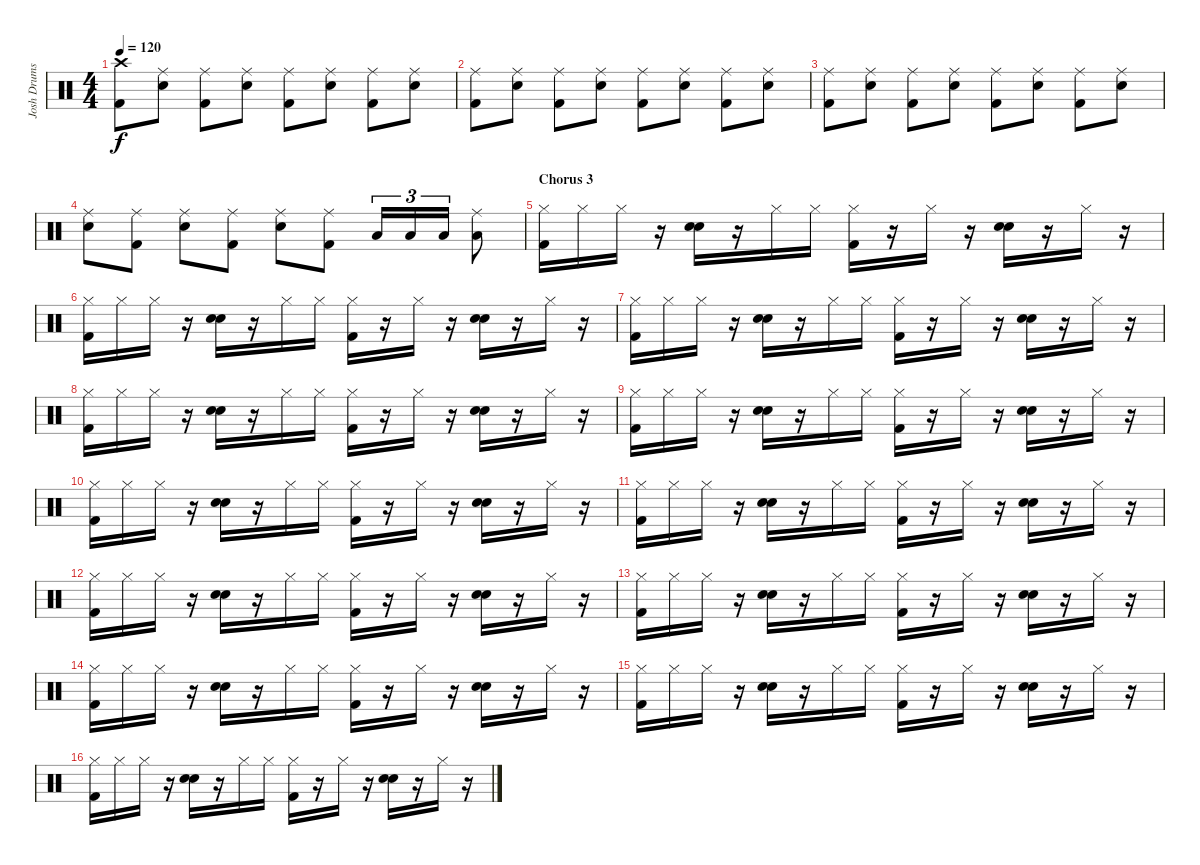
\track ("Josh Drums" "Josh Drums") {instrument percussion}
\staff {score}
\articulation defaults
\ts (4 4)
\tempo 120
\clef neutral
\ks c
("Crash high (hit)" "Kick (hit) 2").8{dy f} ("Ride (middle)" "Electric Snare (hit)").8 ("Ride (middle)" "Kick (hit) 2").8 ("Ride (middle)" "Electric Snare (hit)").8 ("Ride (middle)" "Kick (hit) 2").8 ("Ride (middle)" "Electric Snare (hit)").8 ("Ride (middle)" "Kick (hit) 2").8 ("Ride (middle)" "Electric Snare (hit)").8 |
("Ride (middle)" "Kick (hit) 2").8 ("Ride (middle)" "Electric Snare (hit)").8 ("Ride (middle)" "Kick (hit) 2").8 ("Ride (middle)" "Electric Snare (hit)").8 ("Ride (middle)" "Kick (hit) 2").8 ("Ride (middle)" "Electric Snare (hit)").8 ("Ride (middle)" "Kick (hit) 2").8 ("Ride (middle)" "Electric Snare (hit)").8 |
("Ride (middle)" "Kick (hit) 2").8 ("Ride (middle)" "Electric Snare (hit)").8 ("Ride (middle)" "Kick (hit) 2").8 ("Ride (middle)" "Electric Snare (hit)").8 ("Ride (middle)" "Kick (hit) 2").8 ("Ride (middle)" "Electric Snare (hit)").8 ("Ride (middle)" "Kick (hit) 2").8 ("Ride (middle)" "Electric Snare (hit)").8 |
("Ride (middle)" "Electric Snare (hit)").8 ("Ride (middle)" "Kick (hit) 2").8 ("Ride (middle)" "Electric Snare (hit)").8 ("Ride (middle)" "Kick (hit) 2").8 ("Ride (middle)" "Electric Snare (hit)").8 ("Ride (middle)" "Kick (hit) 2").8 "Low Tom (hit)".16{tu (3 2)} "Low Tom (hit)".16{tu (3 2)} "Low Tom (hit)".16{tu (3 2)} ("Ride (middle)" "Low Tom (hit)").8 |
\section ("" "Chorus 3")
("Hi-Hat (closed)" "Kick (hit) 2").16 "Hi-Hat (closed)".16 "Hi-Hat (closed)".16 r.16 ("Hand Clap (hit)" "Hand Clap (hit)").16 r.16 "Hi-Hat (closed)".16 "Hi-Hat (closed)".16 ("Hi-Hat (closed)" "Kick (hit) 2").16 r.16 "Hi-Hat (closed)".16 r.16 ("Hand Clap (hit)" "Hand Clap (hit)").16 r.16 "Hi-Hat (closed)".16 r.16 |
("Hi-Hat (closed)" "Kick (hit) 2").16 "Hi-Hat (closed)".16 "Hi-Hat (closed)".16 r.16 ("Hand Clap (hit)" "Hand Clap (hit)").16 r.16 "Hi-Hat (closed)".16 "Hi-Hat (closed)".16 ("Hi-Hat (closed)" "Kick (hit) 2").16 r.16 "Hi-Hat (closed)".16 r.16 ("Hand Clap (hit)" "Hand Clap (hit)").16 r.16 "Hi-Hat (closed)".16 r.16 |
("Hi-Hat (closed)" "Kick (hit) 2").16 "Hi-Hat (closed)".16 "Hi-Hat (closed)".16 r.16 ("Hand Clap (hit)" "Hand Clap (hit)").16 r.16 "Hi-Hat (closed)".16 "Hi-Hat (closed)".16 ("Hi-Hat (closed)" "Kick (hit) 2").16 r.16 "Hi-Hat (closed)".16 r.16 ("Hand Clap (hit)" "Hand Clap (hit)").16 r.16 "Hi-Hat (closed)".16 r.16 |
("Hi-Hat (closed)" "Kick (hit) 2").16 "Hi-Hat (closed)".16 "Hi-Hat (closed)".16 r.16 ("Hand Clap (hit)" "Hand Clap (hit)").16 r.16 "Hi-Hat (closed)".16 "Hi-Hat (closed)".16 ("Hi-Hat (closed)" "Kick (hit) 2").16 r.16 "Hi-Hat (closed)".16 r.16 ("Hand Clap (hit)" "Hand Clap (hit)").16 r.16 "Hi-Hat (closed)".16 r.16 |
("Hi-Hat (closed)" "Kick (hit) 2").16 "Hi-Hat (closed)".16 "Hi-Hat (closed)".16 r.16 ("Hand Clap (hit)" "Hand Clap (hit)").16 r.16 "Hi-Hat (closed)".16 "Hi-Hat (closed)".16 ("Hi-Hat (closed)" "Kick (hit) 2").16 r.16 "Hi-Hat (closed)".16 r.16 ("Hand Clap (hit)" "Hand Clap (hit)").16 r.16 "Hi-Hat (closed)".16 r.16 |
("Hi-Hat (closed)" "Kick (hit) 2").16 "Hi-Hat (closed)".16 "Hi-Hat (closed)".16 r.16 ("Hand Clap (hit)" "Hand Clap (hit)").16 r.16 "Hi-Hat (closed)".16 "Hi-Hat (closed)".16 ("Hi-Hat (closed)" "Kick (hit) 2").16 r.16 "Hi-Hat (closed)".16 r.16 ("Hand Clap (hit)" "Hand Clap (hit)").16 r.16 "Hi-Hat (closed)".16 r.16 |
("Hi-Hat (closed)" "Kick (hit) 2").16 "Hi-Hat (closed)".16 "Hi-Hat (closed)".16 r.16 ("Hand Clap (hit)" "Hand Clap (hit)").16 r.16 "Hi-Hat (closed)".16 "Hi-Hat (closed)".16 ("Hi-Hat (closed)" "Kick (hit) 2").16 r.16 "Hi-Hat (closed)".16 r.16 ("Hand Clap (hit)" "Hand Clap (hit)").16 r.16 "Hi-Hat (closed)".16 r.16 |
("Hi-Hat (closed)" "Kick (hit) 2").16 "Hi-Hat (closed)".16 "Hi-Hat (closed)".16 r.16 ("Hand Clap (hit)" "Hand Clap (hit)").16 r.16 "Hi-Hat (closed)".16 "Hi-Hat (closed)".16 ("Hi-Hat (closed)" "Kick (hit) 2").16 r.16 "Hi-Hat (closed)".16 r.16 ("Hand Clap (hit)" "Hand Clap (hit)").16 r.16 "Hi-Hat (closed)".16 r.16 |
("Hi-Hat (closed)" "Kick (hit) 2").16 "Hi-Hat (closed)".16 "Hi-Hat (closed)".16 r.16 ("Hand Clap (hit)" "Hand Clap (hit)").16 r.16 "Hi-Hat (closed)".16 "Hi-Hat (closed)".16 ("Hi-Hat (closed)" "Kick (hit) 2").16 r.16 "Hi-Hat (closed)".16 r.16 ("Hand Clap (hit)" "Hand Clap (hit)").16 r.16 "Hi-Hat (closed)".16 r.16 |
("Hi-Hat (closed)" "Kick (hit) 2").16 "Hi-Hat (closed)".16 "Hi-Hat (closed)".16 r.16 ("Hand Clap (hit)" "Hand Clap (hit)").16 r.16 "Hi-Hat (closed)".16 "Hi-Hat (closed)".16 ("Hi-Hat (closed)" "Kick (hit) 2").16 r.16 "Hi-Hat (closed)".16 r.16 ("Hand Clap (hit)" "Hand Clap (hit)").16 r.16 "Hi-Hat (closed)".16 r.16 |
("Hi-Hat (closed)" "Kick (hit) 2").16 "Hi-Hat (closed)".16 "Hi-Hat (closed)".16 r.16 ("Hand Clap (hit)" "Hand Clap (hit)").16 r.16 "Hi-Hat (closed)".16 "Hi-Hat (closed)".16 ("Hi-Hat (closed)" "Kick (hit) 2").16 r.16 "Hi-Hat (closed)".16 r.16 ("Hand Clap (hit)" "Hand Clap (hit)").16 r.16 "Hi-Hat (closed)".16 r.16 |
("Hi-Hat (closed)" "Kick (hit) 2").16 "Hi-Hat (closed)".16 "Hi-Hat (closed)".16 r.16 ("Hand Clap (hit)" "Hand Clap (hit)").16 r.16 "Hi-Hat (closed)".16 "Hi-Hat (closed)".16 ("Hi-Hat (closed)" "Kick (hit) 2").16 r.16 "Hi-Hat (closed)".16 r.16 ("Hand Clap (hit)" "Hand Clap (hit)").16 r.16 "Hi-Hat (closed)".16 r.16
